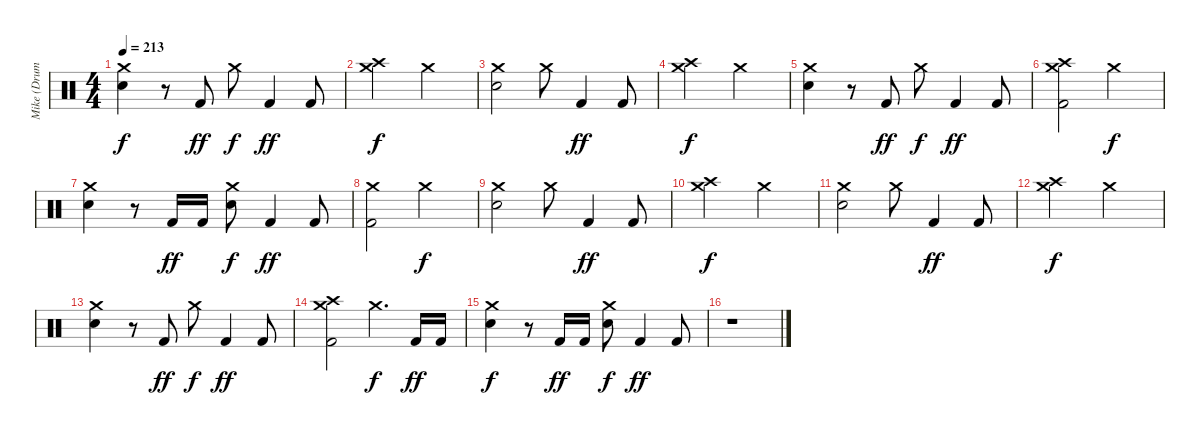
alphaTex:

\track ("Mike (Drums)" "Mike (Drum") {instrument percussion}
\staff {score}
\articulation defaults
\ts (4 4)
\tempo 213
\clef neutral
\ks c
("Crash medium (hit)" "Electric Snare (hit)").4{dy f} r.8 "Kick (hit) 2".8{dy ff} "Crash medium (hit)".8{dy f} "Kick (hit) 2".4{dy ff} "Kick (hit) 2".8 |
("Crash medium (hit)" "Crash high (hit)").2{dy f} "Crash medium (hit)".2 |
("Crash medium (hit)" "Electric Snare (hit)").2 "Crash medium (hit)".8 "Kick (hit) 2".4{dy ff} "Kick (hit) 2".8 |
("Crash medium (hit)" "Crash high (hit)").2{dy f} "Crash medium (hit)".2 |
("Crash medium (hit)" "Electric Snare (hit)").4 r.8 "Kick (hit) 2".8{dy ff} "Crash medium (hit)".8{dy f} "Kick (hit) 2".4{dy ff} "Kick (hit) 2".8 |
("Crash medium (hit)" "Crash high (hit)" "Kick (hit) 2").2 "Crash medium (hit)".2{dy f} |
("Crash medium (hit)" "Electric Snare (hit)").4 r.8 "Kick (hit) 2".16{dy ff} "Kick (hit) 2".16 ("Crash medium (hit)" "Electric Snare (hit)").8{dy f} "Kick (hit) 2".4{dy ff} "Kick (hit) 2".8 |
("Crash medium (hit)" "Kick (hit) 2").2 "Crash medium (hit)".2{dy f} |
("Crash medium (hit)" "Electric Snare (hit)").2 "Crash medium (hit)".8 "Kick (hit) 2".4{dy ff} "Kick (hit) 2".8 |
("Crash medium (hit)" "Crash high (hit)").2{dy f} "Crash medium (hit)".2 |
("Crash medium (hit)" "Electric Snare (hit)").2 "Crash medium (hit)".8 "Kick (hit) 2".4{dy ff} "Kick (hit) 2".8 |
("Crash medium (hit)" "Crash high (hit)").2{dy f} "Crash medium (hit)".2 |
("Crash medium (hit)" "Electric Snare (hit)").4 r.8 "Kick (hit) 2".8{dy ff} "Crash medium (hit)".8{dy f} "Kick (hit) 2".4{dy ff} "Kick (hit) 2".8 |
("Crash medium (hit)" "Crash high (hit)" "Kick (hit) 2").2 "Crash medium (hit)".4{d dy f} "Kick (hit) 2".16{dy ff} "Kick (hit) 2".16 |
("Crash medium (hit)" "Electric Snare (hit)").4{dy f} r.8 "Kick (hit) 2".16{dy ff} "Kick (hit) 2".16 ("Crash medium (hit)" "Electric Snare (hit)").8{dy f} "Kick (hit) 2".4{dy ff} "Kick (hit) 2".8 |
r.1
